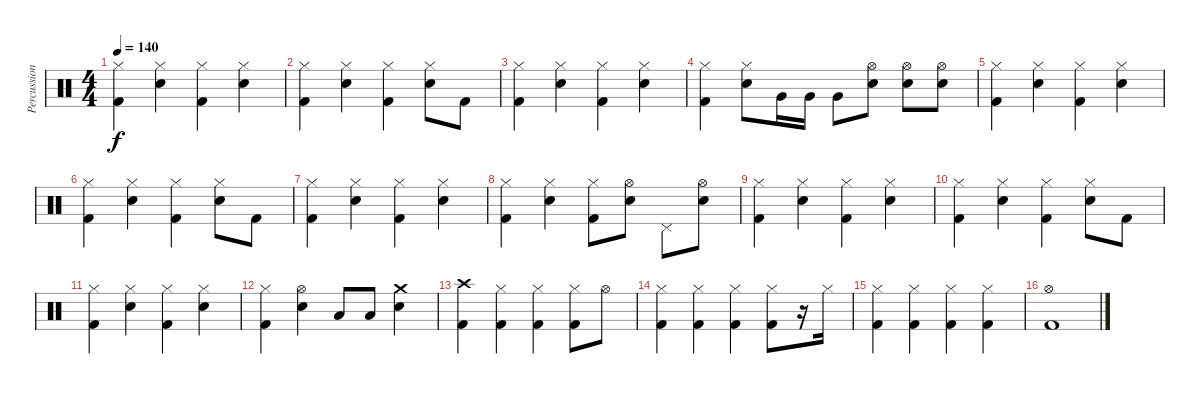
\track ("Percussions" "Percussion") {instrument percussion}
\staff {score}
\articulation defaults
\ts (4 4)
\tempo 140
\clef neutral
\ks c
("Hi-Hat (closed)" "Kick (hit) 2").4{dy f} ("Hi-Hat (closed)" "Electric Snare (hit)").4 ("Hi-Hat (closed)" "Kick (hit) 2").4 ("Hi-Hat (closed)" "Electric Snare (hit)").4 |
("Hi-Hat (closed)" "Kick (hit) 2").4 ("Hi-Hat (closed)" "Electric Snare (hit)").4 ("Hi-Hat (closed)" "Kick (hit) 2").4 ("Hi-Hat (closed)" "Electric Snare (hit)").8 "Kick (hit) 2".8 |
("Hi-Hat (closed)" "Kick (hit) 2").4 ("Hi-Hat (closed)" "Electric Snare (hit)").4 ("Hi-Hat (closed)" "Kick (hit) 2").4 ("Hi-Hat (closed)" "Electric Snare (hit)").4 |
("Hi-Hat (closed)" "Kick (hit) 2").4 ("Hi-Hat (closed)" "Electric Snare (hit)").8 "Very Low Tom (hit)".16 "Very Low Tom (hit)".16 "Very Low Tom (hit)".8 ("Hi-Hat (open)" "Electric Snare (hit)").8 ("Hi-Hat (open)" "Electric Snare (hit)").8 ("Hi-Hat (open)" "Electric Snare (hit)").8 |
("Hi-Hat (closed)" "Kick (hit) 2").4 ("Hi-Hat (closed)" "Electric Snare (hit)").4 ("Hi-Hat (closed)" "Kick (hit) 2").4 ("Hi-Hat (closed)" "Electric Snare (hit)").4 |
("Hi-Hat (closed)" "Kick (hit) 2").4 ("Hi-Hat (closed)" "Electric Snare (hit)").4 ("Hi-Hat (closed)" "Kick (hit) 2").4 ("Hi-Hat (closed)" "Electric Snare (hit)").8 "Kick (hit) 2".8 |
("Hi-Hat (closed)" "Kick (hit) 2").4 ("Hi-Hat (closed)" "Electric Snare (hit)").4 ("Hi-Hat (closed)" "Kick (hit) 2").4 ("Hi-Hat (closed)" "Electric Snare (hit)").4 |
("Hi-Hat (closed)" "Kick (hit) 2").4 ("Hi-Hat (closed)" "Electric Snare (hit)").4 ("Hi-Hat (closed)" "Kick (hit) 2").8 ("Hi-Hat (open)" "Electric Snare (hit)").8 "Pedal Hi-Hat (hit)".8 ("Hi-Hat (open)" "Electric Snare (hit)").8 |
("Hi-Hat (closed)" "Kick (hit) 2").4 ("Hi-Hat (closed)" "Electric Snare (hit)").4 ("Hi-Hat (closed)" "Kick (hit) 2").4 ("Hi-Hat (closed)" "Electric Snare (hit)").4 |
("Hi-Hat (closed)" "Kick (hit) 2").4 ("Hi-Hat (closed)" "Electric Snare (hit)").4 ("Hi-Hat (closed)" "Kick (hit) 2").4 ("Hi-Hat (closed)" "Electric Snare (hit)").8 "Kick (hit) 2".8 |
("Hi-Hat (closed)" "Kick (hit) 2").4 ("Hi-Hat (closed)" "Electric Snare (hit)").4 ("Hi-Hat (closed)" "Kick (hit) 2").4 ("Hi-Hat (closed)" "Electric Snare (hit)").4 |
("Hi-Hat (closed)" "Kick (hit) 2").4 ("Hi-Hat (open)" "Electric Snare (hit)").4 "Low Tom (hit)".8 "Low Tom (hit)".8 ("Crash medium (hit)" "Electric Snare (hit)").4 |
("Crash high (hit)" "Kick (hit) 2").4 ("Hi-Hat (closed)" "Kick (hit) 2").4 ("Hi-Hat (closed)" "Kick (hit) 2").4 ("Hi-Hat (closed)" "Kick (hit) 2").8 "Hi-Hat (open)".8 |
("Hi-Hat (closed)" "Kick (hit) 2").4 ("Hi-Hat (closed)" "Kick (hit) 2").4 ("Hi-Hat (closed)" "Kick (hit) 2").4 ("Hi-Hat (closed)" "Kick (hit) 2").8 r.16 "Hi-Hat (closed)".16 |
("Hi-Hat (closed)" "Kick (hit) 2").4 ("Hi-Hat (closed)" "Kick (hit) 2").4 ("Hi-Hat (closed)" "Kick (hit) 2").4 ("Hi-Hat (closed)" "Kick (hit) 2").4 |
("Hi-Hat (open)" "Kick (hit) 2").1
